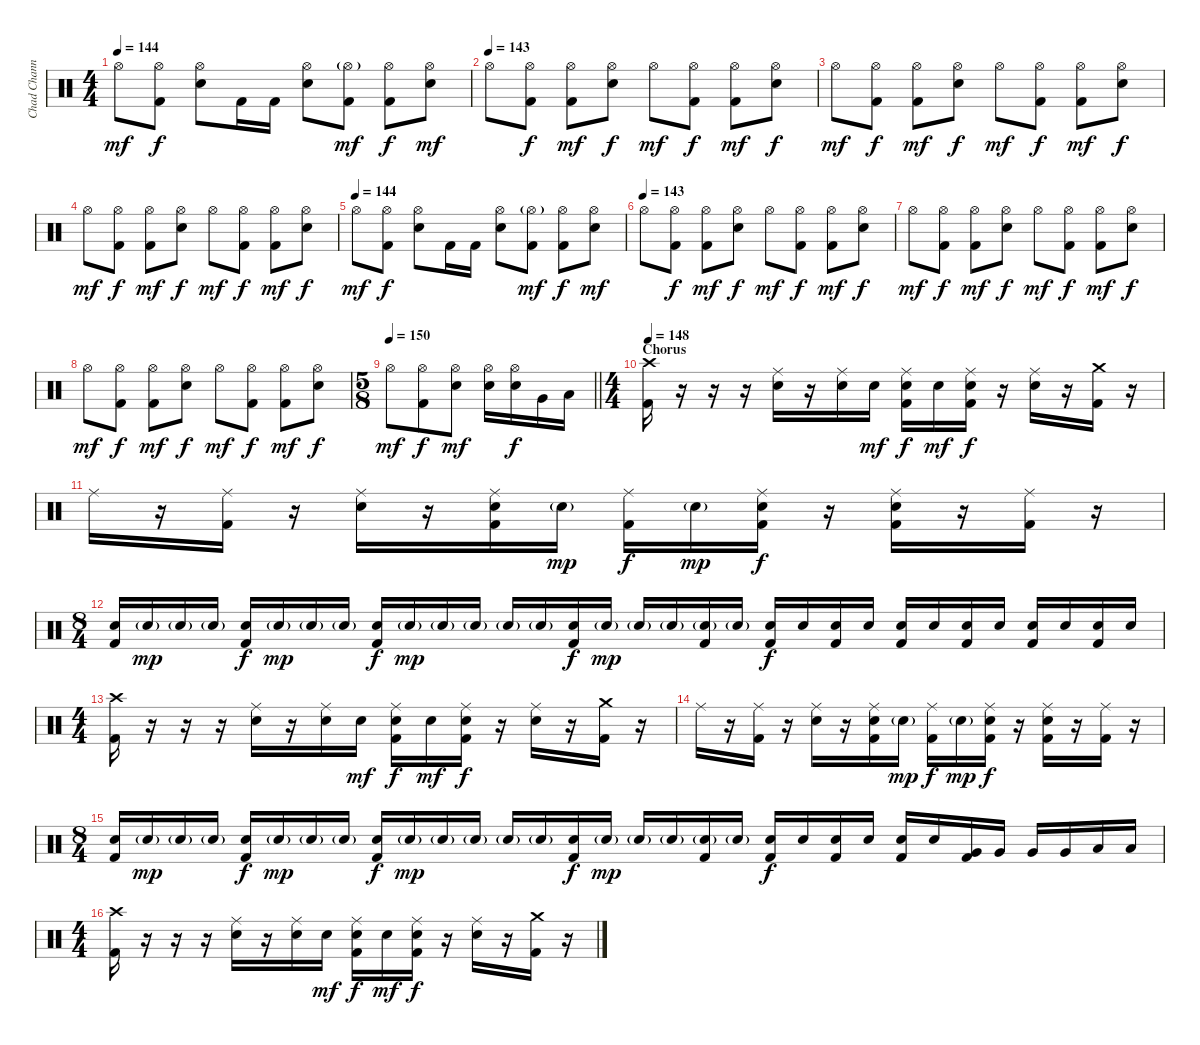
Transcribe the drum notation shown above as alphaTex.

\track ("Chad Channing" "Chad Chann") {instrument percussion}
\staff {score}
\articulation defaults
\ts (4 4)
\tempo 144
\clef neutral
\ks c "Hi-Hat (open)".8{dy mf}
("Kick (hit) 2" "Hi-Hat (open)").8{dy f} ("Electric Snare (hit)" "Hi-Hat (open)").8 "Kick (hit) 2".16 "Kick (hit) 2".16 ("Electric Snare (hit)" "Hi-Hat (open)").8 ("Kick (hit) 2" "Hi-Hat (open)"{g}).8{dy mf} ("Kick (hit) 2" "Hi-Hat (open)").8{dy f} ("Electric Snare (hit)" "Hi-Hat (open)").8{dy mf} |
\tempo (143)
"Hi-Hat (open)".8 ("Kick (hit) 2" "Hi-Hat (open)").8{dy f} ("Kick (hit) 2" "Hi-Hat (open)").8{dy mf} ("Electric Snare (hit)" "Hi-Hat (open)").8{dy f} "Hi-Hat (open)".8{dy mf} ("Kick (hit) 2" "Hi-Hat (open)").8{dy f} ("Kick (hit) 2" "Hi-Hat (open)").8{dy mf} ("Electric Snare (hit)" "Hi-Hat (open)").8{dy f} |
"Hi-Hat (open)".8{dy mf} ("Kick (hit) 2" "Hi-Hat (open)").8{dy f} ("Kick (hit) 2" "Hi-Hat (open)").8{dy mf} ("Electric Snare (hit)" "Hi-Hat (open)").8{dy f} "Hi-Hat (open)".8{dy mf} ("Kick (hit) 2" "Hi-Hat (open)").8{dy f} ("Kick (hit) 2" "Hi-Hat (open)").8{dy mf} ("Electric Snare (hit)" "Hi-Hat (open)").8{dy f} |
"Hi-Hat (open)".8{dy mf} ("Kick (hit) 2" "Hi-Hat (open)").8{dy f} ("Kick (hit) 2" "Hi-Hat (open)").8{dy mf} ("Electric Snare (hit)" "Hi-Hat (open)").8{dy f} "Hi-Hat (open)".8{dy mf} ("Kick (hit) 2" "Hi-Hat (open)").8{dy f} ("Kick (hit) 2" "Hi-Hat (open)").8{dy mf} ("Electric Snare (hit)" "Hi-Hat (open)").8{dy f} |
\tempo (144)
"Hi-Hat (open)".8{dy mf} ("Kick (hit) 2" "Hi-Hat (open)").8{dy f} ("Electric Snare (hit)" "Hi-Hat (open)").8 "Kick (hit) 2".16 "Kick (hit) 2".16 ("Electric Snare (hit)" "Hi-Hat (open)").8 ("Kick (hit) 2" "Hi-Hat (open)"{g}).8{dy mf} ("Kick (hit) 2" "Hi-Hat (open)").8{dy f} ("Electric Snare (hit)" "Hi-Hat (open)").8{dy mf} |
\tempo (143)
"Hi-Hat (open)".8 ("Kick (hit) 2" "Hi-Hat (open)").8{dy f} ("Kick (hit) 2" "Hi-Hat (open)").8{dy mf} ("Electric Snare (hit)" "Hi-Hat (open)").8{dy f} "Hi-Hat (open)".8{dy mf} ("Kick (hit) 2" "Hi-Hat (open)").8{dy f} ("Kick (hit) 2" "Hi-Hat (open)").8{dy mf} ("Electric Snare (hit)" "Hi-Hat (open)").8{dy f} |
"Hi-Hat (open)".8{dy mf} ("Kick (hit) 2" "Hi-Hat (open)").8{dy f} ("Kick (hit) 2" "Hi-Hat (open)").8{dy mf} ("Electric Snare (hit)" "Hi-Hat (open)").8{dy f} "Hi-Hat (open)".8{dy mf} ("Kick (hit) 2" "Hi-Hat (open)").8{dy f} ("Kick (hit) 2" "Hi-Hat (open)").8{dy mf} ("Electric Snare (hit)" "Hi-Hat (open)").8{dy f} |
"Hi-Hat (open)".8{dy mf} ("Kick (hit) 2" "Hi-Hat (open)").8{dy f} ("Kick (hit) 2" "Hi-Hat (open)").8{dy mf} ("Electric Snare (hit)" "Hi-Hat (open)").8{dy f} "Hi-Hat (open)".8{dy mf} ("Kick (hit) 2" "Hi-Hat (open)").8{dy f} ("Kick (hit) 2" "Hi-Hat (open)").8{dy mf} ("Electric Snare (hit)" "Hi-Hat (open)").8{dy f} |
\ts (5 8)
\tempo 150
\barLineRight lightlight "Hi-Hat (open)".8{dy mf}
("Kick (hit) 2" "Hi-Hat (open)").8{dy f} ("Electric Snare (hit)" "Hi-Hat (open)").8{dy mf} ("Electric Snare (hit)" "Hi-Hat (open)").16 ("Electric Snare (hit)" "Hi-Hat (open)").16{dy f} "Very Low Tom (hit)".16 "Low Floor Tom (hit)".16 |
\ts (4 4)
\section ("" "Chorus")
\tempo 148
("Crash high (hit)" "Kick (hit) 2").16 r.16 r.16 r.16 ("Electric Snare (hit)" "Ride (middle)").16 r.16 ("Electric Snare (hit)" "Ride (middle)").16 "Electric Snare (hit)".16{dy mf} ("Electric Snare (hit)" "Ride (middle)" "Kick (hit) 2").16{dy f} "Electric Snare (hit)".16{dy mf} ("Electric Snare (hit)" "Ride (middle)" "Kick (hit) 2").16{dy f} r.16 ("Electric Snare (hit)" "Ride (middle)").16 r.16 ("Kick (hit) 2" "Crash medium (hit)").16 r.16 |
"Ride (middle)".16 r.16 ("Ride (middle)" "Kick (hit) 2").16 r.16 ("Electric Snare (hit)" "Ride (middle)").16 r.16 ("Electric Snare (hit)" "Ride (middle)" "Kick (hit) 2").16 "Electric Snare (hit)"{g}.16{dy mp} ("Ride (middle)" "Kick (hit) 2").16{dy f} "Electric Snare (hit)"{g}.16{dy mp} ("Electric Snare (hit)" "Ride (middle)" "Kick (hit) 2").16{dy f} r.16 ("Electric Snare (hit)" "Ride (middle)" "Kick (hit) 2").16 r.16 ("Ride (middle)" "Kick (hit) 2").16 r.16 |
\ts (8 4)
("Kick (hit) 2" "Electric Snare (hit)").16 "Electric Snare (hit)"{g}.16{dy mp} "Electric Snare (hit)"{g}.16 "Electric Snare (hit)"{g}.16 ("Kick (hit) 2" "Electric Snare (hit)").16{dy f} "Electric Snare (hit)"{g}.16{dy mp} "Electric Snare (hit)"{g}.16 "Electric Snare (hit)"{g}.16 ("Kick (hit) 2" "Electric Snare (hit)").16{dy f} "Electric Snare (hit)"{g}.16{dy mp} "Electric Snare (hit)"{g}.16 "Electric Snare (hit)"{g}.16 "Electric Snare (hit)"{g}.16 "Electric Snare (hit)"{g}.16 ("Kick (hit) 2" "Electric Snare (hit)").16{dy f} "Electric Snare (hit)"{g}.16{dy mp} "Electric Snare (hit)"{g}.16 "Electric Snare (hit)"{g}.16 ("Kick (hit) 2" "Electric Snare (hit)"{g}).16 "Electric Snare (hit)"{g}.16 ("Kick (hit) 2" "Electric Snare (hit)").16{dy f} "Electric Snare (hit)".16 ("Kick (hit) 2" "Electric Snare (hit)").16 "Electric Snare (hit)".16 ("Kick (hit) 2" "Electric Snare (hit)").16 "Electric Snare (hit)".16 ("Kick (hit) 2" "Electric Snare (hit)").16 "Electric Snare (hit)".16 ("Kick (hit) 2" "Electric Snare (hit)").16 "Electric Snare (hit)".16 ("Kick (hit) 2" "Electric Snare (hit)").16 "Electric Snare (hit)".16 |
\ts (4 4)
("Crash high (hit)" "Kick (hit) 2").16 r.16 r.16 r.16 ("Electric Snare (hit)" "Ride (middle)").16 r.16 ("Electric Snare (hit)" "Ride (middle)").16 "Electric Snare (hit)".16{dy mf} ("Electric Snare (hit)" "Ride (middle)" "Kick (hit) 2").16{dy f} "Electric Snare (hit)".16{dy mf} ("Electric Snare (hit)" "Ride (middle)" "Kick (hit) 2").16{dy f} r.16 ("Electric Snare (hit)" "Ride (middle)").16 r.16 ("Kick (hit) 2" "Crash medium (hit)").16 r.16 |
"Ride (middle)".16 r.16 ("Ride (middle)" "Kick (hit) 2").16 r.16 ("Electric Snare (hit)" "Ride (middle)").16 r.16 ("Electric Snare (hit)" "Ride (middle)" "Kick (hit) 2").16 "Electric Snare (hit)"{g}.16{dy mp} ("Ride (middle)" "Kick (hit) 2").16{dy f} "Electric Snare (hit)"{g}.16{dy mp} ("Electric Snare (hit)" "Ride (middle)" "Kick (hit) 2").16{dy f} r.16 ("Electric Snare (hit)" "Ride (middle)" "Kick (hit) 2").16 r.16 ("Ride (middle)" "Kick (hit) 2").16 r.16 |
\ts (8 4)
("Kick (hit) 2" "Electric Snare (hit)").16 "Electric Snare (hit)"{g}.16{dy mp} "Electric Snare (hit)"{g}.16 "Electric Snare (hit)"{g}.16 ("Kick (hit) 2" "Electric Snare (hit)").16{dy f} "Electric Snare (hit)"{g}.16{dy mp} "Electric Snare (hit)"{g}.16 "Electric Snare (hit)"{g}.16 ("Kick (hit) 2" "Electric Snare (hit)").16{dy f} "Electric Snare (hit)"{g}.16{dy mp} "Electric Snare (hit)"{g}.16 "Electric Snare (hit)"{g}.16 "Electric Snare (hit)"{g}.16 "Electric Snare (hit)"{g}.16 ("Kick (hit) 2" "Electric Snare (hit)").16{dy f} "Electric Snare (hit)"{g}.16{dy mp} "Electric Snare (hit)"{g}.16 "Electric Snare (hit)"{g}.16 ("Kick (hit) 2" "Electric Snare (hit)"{g}).16 "Electric Snare (hit)"{g}.16 ("Kick (hit) 2" "Electric Snare (hit)").16{dy f} "Electric Snare (hit)".16 ("Kick (hit) 2" "Electric Snare (hit)").16 "Electric Snare (hit)".16 ("Kick (hit) 2" "Electric Snare (hit)").16 "Electric Snare (hit)".16 ("Kick (hit) 2" "Very Low Tom (hit)").16 "Very Low Tom (hit)".16 "Very Low Tom (hit)".16 "Very Low Tom (hit)".16 "Low Floor Tom (hit)".16 "Low Floor Tom (hit)".16 |
\ts (4 4)
("Crash high (hit)" "Kick (hit) 2").16 r.16 r.16 r.16 ("Electric Snare (hit)" "Ride (middle)").16 r.16 ("Electric Snare (hit)" "Ride (middle)").16 "Electric Snare (hit)".16{dy mf} ("Electric Snare (hit)" "Ride (middle)" "Kick (hit) 2").16{dy f} "Electric Snare (hit)".16{dy mf} ("Electric Snare (hit)" "Ride (middle)" "Kick (hit) 2").16{dy f} r.16 ("Electric Snare (hit)" "Ride (middle)").16 r.16 ("Kick (hit) 2" "Crash medium (hit)").16 r.16
